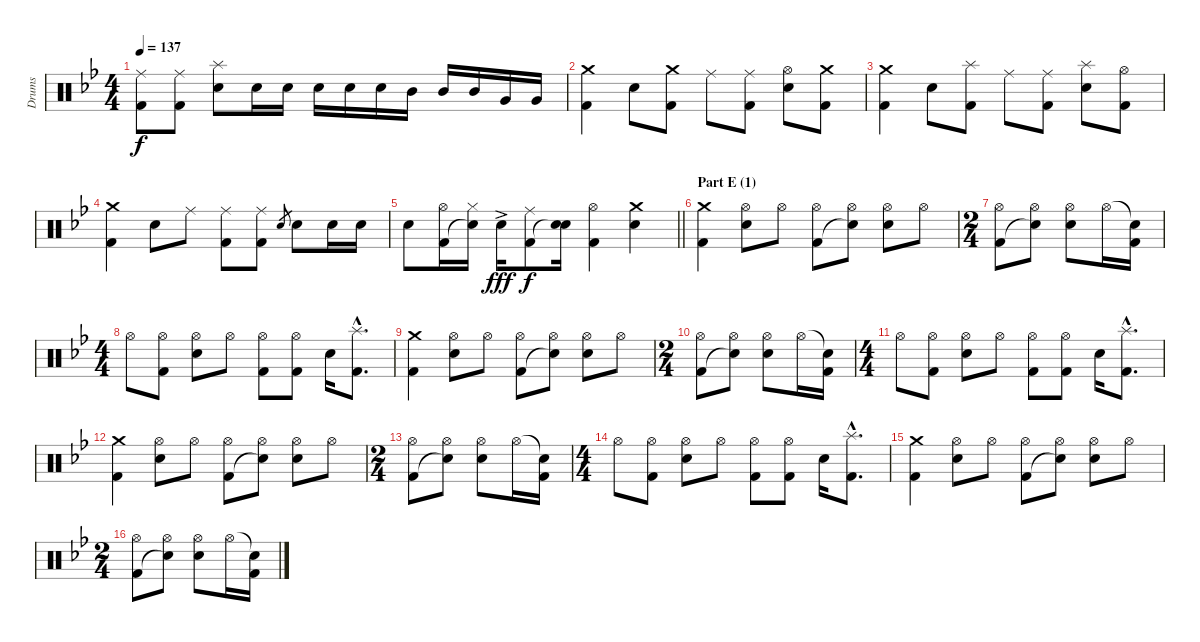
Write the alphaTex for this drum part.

\track ("Drums" "Drums") {instrument percussion}
\staff {score}
\articulation defaults
\ts (4 4)
\tempo 137
\clef neutral
\ks bb
("Ride (middle)" "Kick (hit) 2").8{dy f} ("Ride (middle)" "Kick (hit) 2").8 ("Splash (hit)" "Electric Snare (hit)").8 "Electric Snare (hit)".16 "Electric Snare (hit)".16 "Electric Snare (hit)".16 "Electric Snare (hit)".16 "Electric Snare (hit)".16 "Mid Tom (hit)".16 "Mid Tom (hit)".16 "Mid Tom (hit)".16 "Very Low Tom (hit)".16 "Very Low Tom (hit)".16 |
("Crash medium (hit)" "Kick (hit) 2").4 "Electric Snare (hit)".8 ("Crash medium (hit)" "Kick (hit) 2").8 "Ride (middle)".8 ("Ride (middle)" "Kick (hit) 2").8 ("Hi-Hat (open)" "Electric Snare (hit)").8 ("Crash medium (hit)" "Kick (hit) 2").8 |
("Crash medium (hit)" "Kick (hit) 2").4 "Electric Snare (hit)".8 ("Splash (hit)" "Kick (hit) 2").8 "Ride (middle)".8 ("Ride (middle)" "Kick (hit) 2").8 ("Splash (hit)" "Electric Snare (hit)").8 ("Hi-Hat (open)" "Kick (hit) 2").8 |
("Crash medium (hit)" "Kick (hit) 2").4 "Electric Snare (hit)".8 "Ride (middle)".8 ("Ride (middle)" "Kick (hit) 2").8 ("Ride (middle)" "Kick (hit) 2").8 "Electric Snare (hit)".8{gr} "Electric Snare (hit)".8 "Electric Snare (hit)".16 "Electric Snare (hit)".16 |
\barLineRight lightlight "Electric Snare (hit)".8
("Hi-Hat (open)" "Kick (hit) 2").16 ("Hi-Hat (closed)" "Snare (hit)"{t}).16 "Electric Snare (hit)"{ac}.16{dy fff} ("Ride (middle)" "Kick (hit) 2").8{dy f} ("Electric Snare (hit)" "Snare (hit)"{t}).16 ("Hi-Hat (open)" "Kick (hit) 2").4 ("Crash medium (hit)" "Electric Snare (hit)").4 |
\section ("" "Part E (1)")
("Crash medium (hit)" "Kick (hit) 2").4 ("Hi-Hat (open)" "Electric Snare (hit)").8 "Hi-Hat (open)".8 ("Hi-Hat (open)" "Kick (hit) 2").8 ("Hi-Hat (open)" "Snare (hit)"{t}).8 ("Hi-Hat (open)" "Electric Snare (hit)").8 "Hi-Hat (open)".8 |
\ts (2 4)
("Hi-Hat (open)" "Kick (hit) 2").8 ("Hi-Hat (open)" "Snare (hit)"{t}).8 ("Hi-Hat (open)" "Electric Snare (hit)").8 "Hi-Hat (open)".16 ("Snare (hit)"{t} "Kick (hit) 2").16 |
\ts (4 4)
"Hi-Hat (open)".8 ("Hi-Hat (open)" "Kick (hit) 2").8 ("Hi-Hat (open)" "Electric Snare (hit)").8 "Hi-Hat (open)".8 ("Hi-Hat (open)" "Kick (hit) 2").8 ("Hi-Hat (open)" "Kick (hit) 2").8 "Electric Snare (hit)".16 ("Splash (hit)"{hac} "Kick (hit) 2"{hac}).8{d} |
("Crash medium (hit)" "Kick (hit) 2").4 ("Hi-Hat (open)" "Electric Snare (hit)").8 "Hi-Hat (open)".8 ("Hi-Hat (open)" "Kick (hit) 2").8 ("Hi-Hat (open)" "Snare (hit)"{t}).8 ("Hi-Hat (open)" "Electric Snare (hit)").8 "Hi-Hat (open)".8 |
\ts (2 4)
("Hi-Hat (open)" "Kick (hit) 2").8 ("Hi-Hat (open)" "Snare (hit)"{t}).8 ("Hi-Hat (open)" "Electric Snare (hit)").8 "Hi-Hat (open)".16 ("Snare (hit)"{t} "Kick (hit) 2").16 |
\ts (4 4)
"Hi-Hat (open)".8 ("Hi-Hat (open)" "Kick (hit) 2").8 ("Hi-Hat (open)" "Electric Snare (hit)").8 "Hi-Hat (open)".8 ("Hi-Hat (open)" "Kick (hit) 2").8 ("Hi-Hat (open)" "Kick (hit) 2").8 "Electric Snare (hit)".16 ("Splash (hit)"{hac} "Kick (hit) 2"{hac}).8{d} |
("Crash medium (hit)" "Kick (hit) 2").4 ("Hi-Hat (open)" "Electric Snare (hit)").8 "Hi-Hat (open)".8 ("Hi-Hat (open)" "Kick (hit) 2").8 ("Hi-Hat (open)" "Snare (hit)"{t}).8 ("Hi-Hat (open)" "Electric Snare (hit)").8 "Hi-Hat (open)".8 |
\ts (2 4)
("Hi-Hat (open)" "Kick (hit) 2").8 ("Hi-Hat (open)" "Snare (hit)"{t}).8 ("Hi-Hat (open)" "Electric Snare (hit)").8 "Hi-Hat (open)".16 ("Snare (hit)"{t} "Kick (hit) 2").16 |
\ts (4 4)
"Hi-Hat (open)".8 ("Hi-Hat (open)" "Kick (hit) 2").8 ("Hi-Hat (open)" "Electric Snare (hit)").8 "Hi-Hat (open)".8 ("Hi-Hat (open)" "Kick (hit) 2").8 ("Hi-Hat (open)" "Kick (hit) 2").8 "Electric Snare (hit)".16 ("Splash (hit)"{hac} "Kick (hit) 2"{hac}).8{d} |
("Crash medium (hit)" "Kick (hit) 2").4 ("Hi-Hat (open)" "Electric Snare (hit)").8 "Hi-Hat (open)".8 ("Hi-Hat (open)" "Kick (hit) 2").8 ("Hi-Hat (open)" "Snare (hit)"{t}).8 ("Hi-Hat (open)" "Electric Snare (hit)").8 "Hi-Hat (open)".8 |
\ts (2 4)
("Hi-Hat (open)" "Kick (hit) 2").8 ("Hi-Hat (open)" "Snare (hit)"{t}).8 ("Hi-Hat (open)" "Electric Snare (hit)").8 "Hi-Hat (open)".16 ("Snare (hit)"{t} "Kick (hit) 2").16
